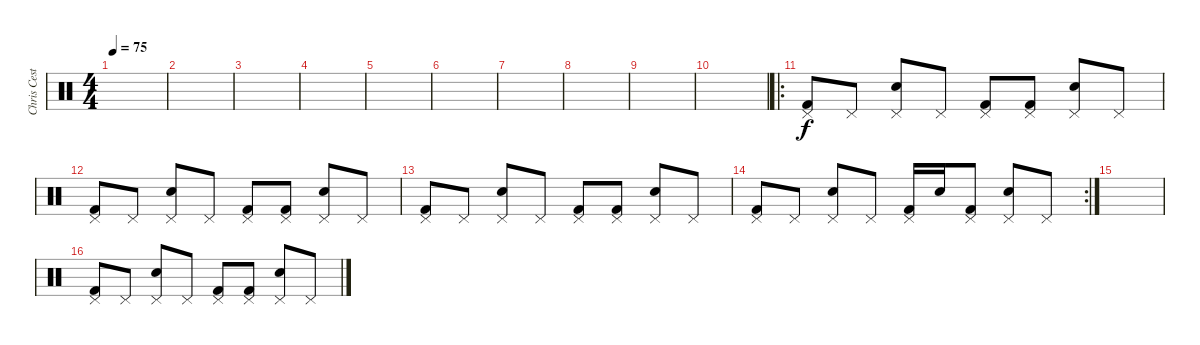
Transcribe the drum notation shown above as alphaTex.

\track ("Chris Cester" "Chris Cest") {instrument percussion}
\staff {score}
\articulation defaults
\ts (4 4)
\tempo 75
\clef neutral
\ks c
|
|
|
|
|
|
|
|
|
|
\ro
("Pedal Hi-Hat (hit)" "Kick (hit) 2").8 "Pedal Hi-Hat (hit)".8 ("Pedal Hi-Hat (hit)" "Snare (hit) 2").8 "Pedal Hi-Hat (hit)".8 ("Pedal Hi-Hat (hit)" "Kick (hit) 2").8 ("Pedal Hi-Hat (hit)" "Kick (hit) 2").8 ("Pedal Hi-Hat (hit)" "Snare (hit) 2").8 "Pedal Hi-Hat (hit)".8 |
("Pedal Hi-Hat (hit)" "Kick (hit) 2").8 "Pedal Hi-Hat (hit)".8 ("Pedal Hi-Hat (hit)" "Snare (hit) 2").8 "Pedal Hi-Hat (hit)".8 ("Pedal Hi-Hat (hit)" "Kick (hit) 2").8 ("Pedal Hi-Hat (hit)" "Kick (hit) 2").8 ("Pedal Hi-Hat (hit)" "Snare (hit) 2").8 "Pedal Hi-Hat (hit)".8 |
("Pedal Hi-Hat (hit)" "Kick (hit) 2").8 "Pedal Hi-Hat (hit)".8 ("Pedal Hi-Hat (hit)" "Snare (hit) 2").8 "Pedal Hi-Hat (hit)".8 ("Pedal Hi-Hat (hit)" "Kick (hit) 2").8 ("Pedal Hi-Hat (hit)" "Kick (hit) 2").8 ("Pedal Hi-Hat (hit)" "Snare (hit) 2").8 "Pedal Hi-Hat (hit)".8 |
\rc 2
("Pedal Hi-Hat (hit)" "Kick (hit) 2").8 "Pedal Hi-Hat (hit)".8 ("Pedal Hi-Hat (hit)" "Snare (hit) 2").8 "Pedal Hi-Hat (hit)".8 ("Pedal Hi-Hat (hit)" "Kick (hit) 2").16 "Snare (hit) 2".16 ("Pedal Hi-Hat (hit)" "Kick (hit) 2").8 ("Pedal Hi-Hat (hit)" "Snare (hit) 2").8 "Pedal Hi-Hat (hit)".8 |
|
("Pedal Hi-Hat (hit)" "Kick (hit) 2").8 "Pedal Hi-Hat (hit)".8 ("Pedal Hi-Hat (hit)" "Snare (hit) 2").8 "Pedal Hi-Hat (hit)".8 ("Pedal Hi-Hat (hit)" "Kick (hit) 2").8 ("Pedal Hi-Hat (hit)" "Kick (hit) 2").8 ("Pedal Hi-Hat (hit)" "Snare (hit) 2").8 "Pedal Hi-Hat (hit)".8
